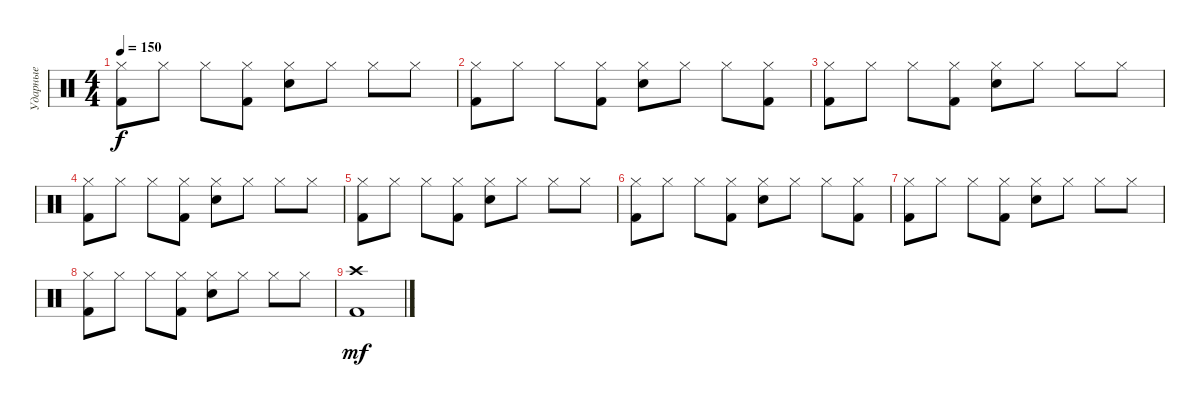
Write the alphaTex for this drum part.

\track ("Ударные" "Ударные") {instrument percussion}
\staff {score}
\articulation defaults
\ts (4 4)
\tempo 150
\clef neutral
\ks c
("Hi-Hat (closed)" "Kick (hit) 2").8{dy f} "Hi-Hat (closed)".8 "Hi-Hat (closed)".8 ("Hi-Hat (closed)" "Kick (hit) 2").8 ("Hi-Hat (closed)" "Electric Snare (hit)").8 "Hi-Hat (closed)".8 "Hi-Hat (closed)".8 "Hi-Hat (closed)".8 |
("Hi-Hat (closed)" "Kick (hit) 2").8 "Hi-Hat (closed)".8 "Hi-Hat (closed)".8 ("Hi-Hat (closed)" "Kick (hit) 2").8 ("Hi-Hat (closed)" "Electric Snare (hit)").8 "Hi-Hat (closed)".8 "Hi-Hat (closed)".8 ("Hi-Hat (closed)" "Kick (hit) 2").8 |
("Hi-Hat (closed)" "Kick (hit) 2").8 "Hi-Hat (closed)".8 "Hi-Hat (closed)".8 ("Hi-Hat (closed)" "Kick (hit) 2").8 ("Hi-Hat (closed)" "Electric Snare (hit)").8 "Hi-Hat (closed)".8 "Hi-Hat (closed)".8 "Hi-Hat (closed)".8 |
("Hi-Hat (closed)" "Kick (hit) 2").8 "Hi-Hat (closed)".8 "Hi-Hat (closed)".8 ("Hi-Hat (closed)" "Kick (hit) 2").8 ("Hi-Hat (closed)" "Electric Snare (hit)").8 "Hi-Hat (closed)".8 "Hi-Hat (closed)".8 "Hi-Hat (closed)".8 |
("Hi-Hat (closed)" "Kick (hit) 2").8 "Hi-Hat (closed)".8 "Hi-Hat (closed)".8 ("Hi-Hat (closed)" "Kick (hit) 2").8 ("Hi-Hat (closed)" "Electric Snare (hit)").8 "Hi-Hat (closed)".8 "Hi-Hat (closed)".8 "Hi-Hat (closed)".8 |
("Hi-Hat (closed)" "Kick (hit) 2").8 "Hi-Hat (closed)".8 "Hi-Hat (closed)".8 ("Hi-Hat (closed)" "Kick (hit) 2").8 ("Hi-Hat (closed)" "Electric Snare (hit)").8 "Hi-Hat (closed)".8 "Hi-Hat (closed)".8 ("Hi-Hat (closed)" "Kick (hit) 2").8 |
("Hi-Hat (closed)" "Kick (hit) 2").8 "Hi-Hat (closed)".8 "Hi-Hat (closed)".8 ("Hi-Hat (closed)" "Kick (hit) 2").8 ("Hi-Hat (closed)" "Electric Snare (hit)").8 "Hi-Hat (closed)".8 "Hi-Hat (closed)".8 "Hi-Hat (closed)".8 |
("Hi-Hat (closed)" "Kick (hit) 2").8 "Hi-Hat (closed)".8 "Hi-Hat (closed)".8 ("Hi-Hat (closed)" "Kick (hit) 2").8 ("Hi-Hat (closed)" "Electric Snare (hit)").8 "Hi-Hat (closed)".8 "Hi-Hat (closed)".8 "Hi-Hat (closed)".8 |
("Crash high (hit)" "Kick (hit) 2").1{dy mf}
